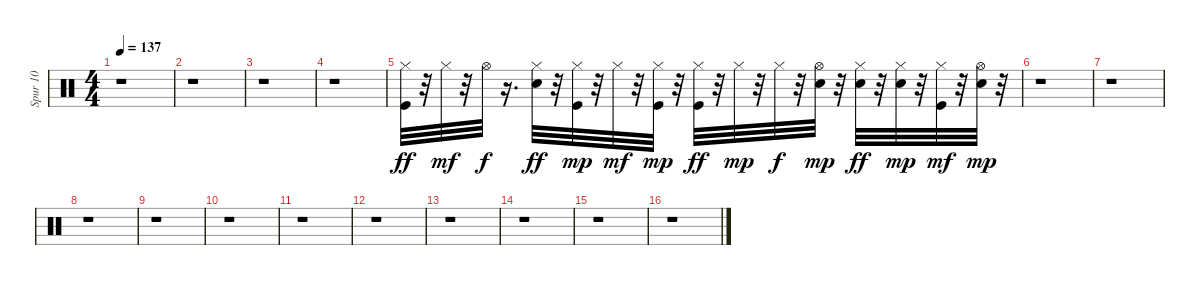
\track ("Spur 10" "Spur 10") {instrument percussion}
\staff {score}
\articulation defaults
\ts (4 4)
\tempo 137
\clef neutral
\ks c
r.1{dy mp} |
r.1 |
r.1 |
r.1 |
("Kick (hit)" "Hi-Hat (closed)").32{dy ff} r.32 "Hi-Hat (closed)".32{dy mf} r.32 "Hi-Hat (open)".32{dy f} r.16{d} ("Electric Snare (hit)" "Hi-Hat (closed)").32{dy ff} r.32 ("Kick (hit)" "Hi-Hat (closed)").32{dy mp} r.32 "Hi-Hat (closed)".32{dy mf} r.32 ("Kick (hit)" "Hi-Hat (closed)").32{dy mp} r.32 ("Kick (hit)" "Hi-Hat (closed)").32{dy ff} r.32 "Hi-Hat (closed)".32{dy mp} r.32 "Hi-Hat (closed)".32{dy f} r.32 ("Electric Snare (hit)" "Hi-Hat (open)").32{dy mp} r.32 ("Electric Snare (hit)" "Hi-Hat (closed)").32{dy ff} r.32 ("Electric Snare (hit)" "Hi-Hat (closed)").32{dy mp} r.32 ("Kick (hit)" "Hi-Hat (closed)").32{dy mf} r.32 ("Electric Snare (hit)" "Hi-Hat (open)").32{dy mp} r.32 |
r.1 |
r.1 |
r.1 |
r.1 |
r.1 |
r.1 |
r.1 |
r.1 |
r.1 |
r.1 |
r.1
